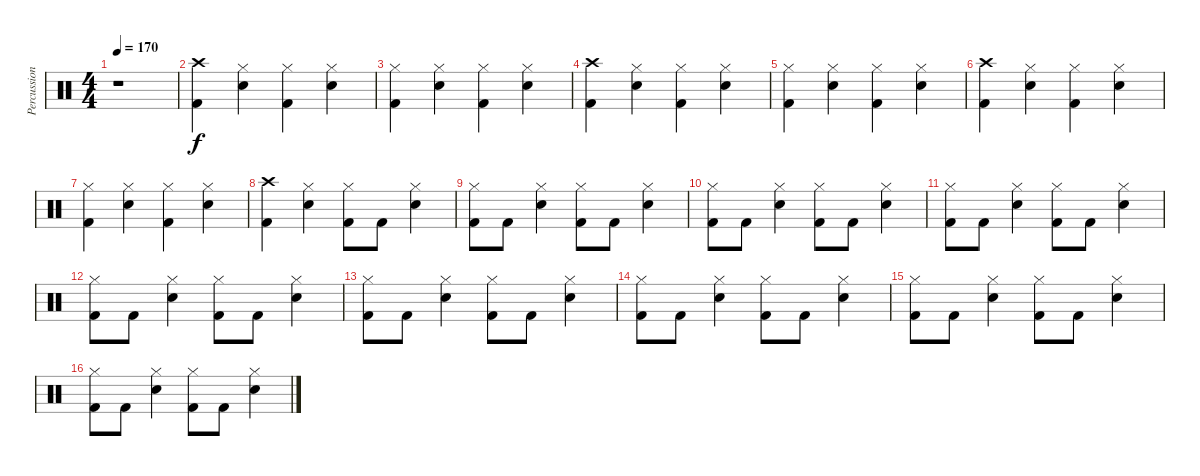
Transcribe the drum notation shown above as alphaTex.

\track ("Percussion" "Percussion") {instrument percussion}
\staff {score}
\articulation defaults
\ts (4 4)
\tempo 170
\clef neutral
\ks c
r.1{dy f} |
("Crash high (hit)" "Kick (hit) 2").4 ("Hi-Hat (closed)" "Electric Snare (hit)").4 ("Hi-Hat (closed)" "Kick (hit) 2").4 ("Hi-Hat (closed)" "Electric Snare (hit)").4 |
("Hi-Hat (closed)" "Kick (hit) 2").4 ("Hi-Hat (closed)" "Electric Snare (hit)").4 ("Hi-Hat (closed)" "Kick (hit) 2").4 ("Hi-Hat (closed)" "Electric Snare (hit)").4 |
("Crash high (hit)" "Kick (hit) 2").4 ("Hi-Hat (closed)" "Electric Snare (hit)").4 ("Hi-Hat (closed)" "Kick (hit) 2").4 ("Hi-Hat (closed)" "Electric Snare (hit)").4 |
("Hi-Hat (closed)" "Kick (hit) 2").4 ("Hi-Hat (closed)" "Electric Snare (hit)").4 ("Hi-Hat (closed)" "Kick (hit) 2").4 ("Hi-Hat (closed)" "Electric Snare (hit)").4 |
("Crash high (hit)" "Kick (hit) 2").4 ("Hi-Hat (closed)" "Electric Snare (hit)").4 ("Hi-Hat (closed)" "Kick (hit) 2").4 ("Hi-Hat (closed)" "Electric Snare (hit)").4 |
("Hi-Hat (closed)" "Kick (hit) 2").4 ("Hi-Hat (closed)" "Electric Snare (hit)").4 ("Hi-Hat (closed)" "Kick (hit) 2").4 ("Hi-Hat (closed)" "Electric Snare (hit)").4 |
("Crash high (hit)" "Kick (hit) 2").4 ("Hi-Hat (closed)" "Electric Snare (hit)").4 ("Hi-Hat (closed)" "Kick (hit) 2").8 "Kick (hit) 2".8 ("Hi-Hat (closed)" "Electric Snare (hit)").4 |
("Hi-Hat (closed)" "Kick (hit) 2").8 "Kick (hit) 2".8 ("Hi-Hat (closed)" "Electric Snare (hit)").4 ("Hi-Hat (closed)" "Kick (hit) 2").8 "Kick (hit) 2".8 ("Hi-Hat (closed)" "Electric Snare (hit)").4 |
("Hi-Hat (closed)" "Kick (hit) 2").8 "Kick (hit) 2".8 ("Hi-Hat (closed)" "Electric Snare (hit)").4 ("Hi-Hat (closed)" "Kick (hit) 2").8 "Kick (hit) 2".8 ("Hi-Hat (closed)" "Electric Snare (hit)").4 |
("Hi-Hat (closed)" "Kick (hit) 2").8 "Kick (hit) 2".8 ("Hi-Hat (closed)" "Electric Snare (hit)").4 ("Hi-Hat (closed)" "Kick (hit) 2").8 "Kick (hit) 2".8 ("Hi-Hat (closed)" "Electric Snare (hit)").4 |
("Hi-Hat (closed)" "Kick (hit) 2").8 "Kick (hit) 2".8 ("Hi-Hat (closed)" "Electric Snare (hit)").4 ("Hi-Hat (closed)" "Kick (hit) 2").8 "Kick (hit) 2".8 ("Hi-Hat (closed)" "Electric Snare (hit)").4 |
("Hi-Hat (closed)" "Kick (hit) 2").8 "Kick (hit) 2".8 ("Hi-Hat (closed)" "Electric Snare (hit)").4 ("Hi-Hat (closed)" "Kick (hit) 2").8 "Kick (hit) 2".8 ("Hi-Hat (closed)" "Electric Snare (hit)").4 |
("Hi-Hat (closed)" "Kick (hit) 2").8 "Kick (hit) 2".8 ("Hi-Hat (closed)" "Electric Snare (hit)").4 ("Hi-Hat (closed)" "Kick (hit) 2").8 "Kick (hit) 2".8 ("Hi-Hat (closed)" "Electric Snare (hit)").4 |
("Hi-Hat (closed)" "Kick (hit) 2").8 "Kick (hit) 2".8 ("Hi-Hat (closed)" "Electric Snare (hit)").4 ("Hi-Hat (closed)" "Kick (hit) 2").8 "Kick (hit) 2".8 ("Hi-Hat (closed)" "Electric Snare (hit)").4 |
("Hi-Hat (closed)" "Kick (hit) 2").8 "Kick (hit) 2".8 ("Hi-Hat (closed)" "Electric Snare (hit)").4 ("Hi-Hat (closed)" "Kick (hit) 2").8 "Kick (hit) 2".8 ("Hi-Hat (closed)" "Electric Snare (hit)").4
